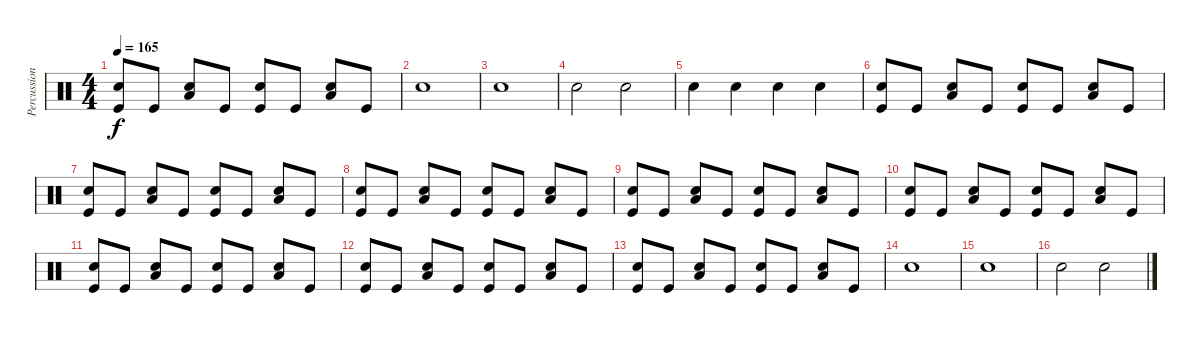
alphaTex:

\track ("Percussions" "Percussion") {instrument percussion}
\staff {score}
\articulation defaults
\ts (4 4)
\tempo 165
\clef neutral
\ks c
("Snare (hit) 2" "Kick (hit)").8{dy f} "Kick (hit)".8 ("Snare (hit) 2" "Low Floor Tom (hit)").8 "Kick (hit)".8 ("Snare (hit) 2" "Kick (hit)").8 "Kick (hit)".8 ("Snare (hit) 2" "Low Floor Tom (hit)").8 "Kick (hit)".8 |
"Snare (hit) 2".1 |
"Snare (hit) 2".1 |
"Snare (hit) 2".2 "Snare (hit) 2".2 |
"Snare (hit) 2".4 "Snare (hit) 2".4 "Snare (hit) 2".4 "Snare (hit) 2".4 |
("Snare (hit) 2" "Kick (hit)").8 "Kick (hit)".8 ("Snare (hit) 2" "Low Floor Tom (hit)").8 "Kick (hit)".8 ("Snare (hit) 2" "Kick (hit)").8 "Kick (hit)".8 ("Snare (hit) 2" "Low Floor Tom (hit)").8 "Kick (hit)".8 |
("Snare (hit) 2" "Kick (hit)").8 "Kick (hit)".8 ("Snare (hit) 2" "Low Floor Tom (hit)").8 "Kick (hit)".8 ("Snare (hit) 2" "Kick (hit)").8 "Kick (hit)".8 ("Snare (hit) 2" "Low Floor Tom (hit)").8 "Kick (hit)".8 |
("Snare (hit) 2" "Kick (hit)").8 "Kick (hit)".8 ("Snare (hit) 2" "Low Floor Tom (hit)").8 "Kick (hit)".8 ("Snare (hit) 2" "Kick (hit)").8 "Kick (hit)".8 ("Snare (hit) 2" "Low Floor Tom (hit)").8 "Kick (hit)".8 |
("Snare (hit) 2" "Kick (hit)").8 "Kick (hit)".8 ("Snare (hit) 2" "Low Floor Tom (hit)").8 "Kick (hit)".8 ("Snare (hit) 2" "Kick (hit)").8 "Kick (hit)".8 ("Snare (hit) 2" "Low Floor Tom (hit)").8 "Kick (hit)".8 |
("Snare (hit) 2" "Kick (hit)").8 "Kick (hit)".8 ("Snare (hit) 2" "Low Floor Tom (hit)").8 "Kick (hit)".8 ("Snare (hit) 2" "Kick (hit)").8 "Kick (hit)".8 ("Snare (hit) 2" "Low Floor Tom (hit)").8 "Kick (hit)".8 |
("Snare (hit) 2" "Kick (hit)").8 "Kick (hit)".8 ("Snare (hit) 2" "Low Floor Tom (hit)").8 "Kick (hit)".8 ("Snare (hit) 2" "Kick (hit)").8 "Kick (hit)".8 ("Snare (hit) 2" "Low Floor Tom (hit)").8 "Kick (hit)".8 |
("Snare (hit) 2" "Kick (hit)").8 "Kick (hit)".8 ("Snare (hit) 2" "Low Floor Tom (hit)").8 "Kick (hit)".8 ("Snare (hit) 2" "Kick (hit)").8 "Kick (hit)".8 ("Snare (hit) 2" "Low Floor Tom (hit)").8 "Kick (hit)".8 |
("Snare (hit) 2" "Kick (hit)").8 "Kick (hit)".8 ("Snare (hit) 2" "Low Floor Tom (hit)").8 "Kick (hit)".8 ("Snare (hit) 2" "Kick (hit)").8 "Kick (hit)".8 ("Snare (hit) 2" "Low Floor Tom (hit)").8 "Kick (hit)".8 |
"Snare (hit) 2".1 |
"Snare (hit) 2".1 |
"Snare (hit) 2".2 "Snare (hit) 2".2
